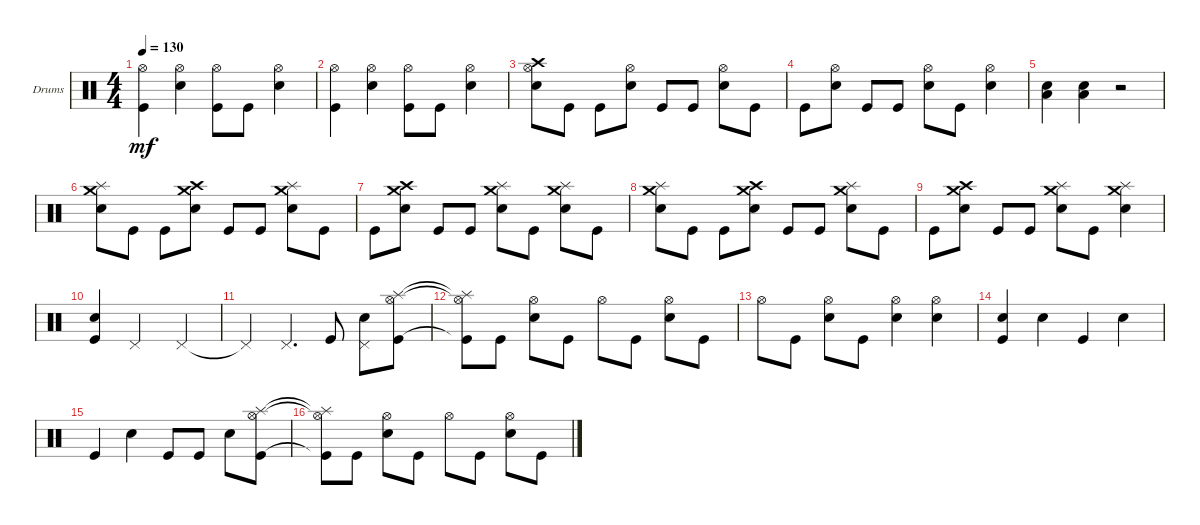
\defaultSystemsLayout 4
\bracketExtendMode groupsimilarinstruments
\firstSystemTrackNameOrientation horizontal
\otherSystemsTrackNameOrientation horizontal
\track ("Drumkit" "Drums") {instrument percussion}
\staff {score}
\articulation defaults
\ts (4 4)
\tempo 130
\clef neutral
\ks c
("Hi-Hat (open)" "Kick (hit)").4{dy mf} ("Snare (hit) 2" "Hi-Hat (open)").4 ("Kick (hit)" "Hi-Hat (open)").8 "Kick (hit)".8 ("Snare (hit) 2" "Hi-Hat (open)").4 |
("Hi-Hat (open)" "Kick (hit)").4 ("Snare (hit) 2" "Hi-Hat (open)").4 ("Kick (hit)" "Hi-Hat (open)").8 "Kick (hit)".8 ("Snare (hit) 2" "Hi-Hat (open)").4 |
("Snare (hit) 2" "Hi-Hat (open)" "Crash high (hit)").8 "Kick (hit)".8 "Kick (hit)".8 ("Snare (hit) 2" "Hi-Hat (open)").8 "Kick (hit)".8 "Kick (hit)".8 ("Snare (hit) 2" "Hi-Hat (open)").8 "Kick (hit)".8 |
"Kick (hit)".8 ("Snare (hit) 2" "Hi-Hat (open)").8 "Kick (hit)".8 "Kick (hit)".8 ("Snare (hit) 2" "Hi-Hat (open)").8 "Kick (hit)".8 ("Snare (hit) 2" "Hi-Hat (open)").4 |
("Snare (hit) 2" "Low Tom (hit)").4 ("Snare (hit) 2" "Low Tom (hit)").4 r.2 |
("Snare (hit) 2" "Splash (hit)" "Crash medium (hit)").8 "Kick (hit)".8 "Kick (hit)".8 ("Snare (hit) 2" "Crash high (hit)" "Crash medium (hit)").8 "Kick (hit)".8 "Kick (hit)".8 ("Snare (hit) 2" "Splash (hit)" "Crash medium (hit)").8 "Kick (hit)".8 |
"Kick (hit)".8 ("Snare (hit) 2" "Crash high (hit)" "Crash medium (hit)").8 "Kick (hit)".8 "Kick (hit)".8 ("Snare (hit) 2" "Splash (hit)" "Crash medium (hit)").8 "Kick (hit)".8 ("Snare (hit) 2" "Splash (hit)" "Crash medium (hit)").8 "Kick (hit)".8 |
("Snare (hit) 2" "Splash (hit)" "Crash medium (hit)").8 "Kick (hit)".8 "Kick (hit)".8 ("Snare (hit) 2" "Crash high (hit)" "Crash medium (hit)").8 "Kick (hit)".8 "Kick (hit)".8 ("Snare (hit) 2" "Splash (hit)" "Crash medium (hit)").8 "Kick (hit)".8 |
"Kick (hit)".8 ("Snare (hit) 2" "Crash high (hit)" "Crash medium (hit)").8 "Kick (hit)".8 "Kick (hit)".8 ("Snare (hit) 2" "Splash (hit)" "Crash medium (hit)").8 "Kick (hit)".8 ("Snare (hit) 2" "Splash (hit)" "Crash medium (hit)").4 |
("Snare (hit) 2" "Kick (hit)").4 "Pedal Hi-Hat (hit)".2 "Pedal Hi-Hat (hit)".4 |
"Pedal Hi-Hat (hit)"{t}.4 "Pedal Hi-Hat (hit)".4{d} "Kick (hit)".8 ("Snare (hit) 2" "Pedal Hi-Hat (hit)").8 ("Kick (hit)" "Splash (hit)" "Hi-Hat (open)").8 |
("Kick (hit)"{t} "Splash (hit)"{t} "Hi-Hat (open)"{t}).8 "Kick (hit)".8 ("Snare (hit) 2" "Hi-Hat (open)").8 "Kick (hit)".8 "Hi-Hat (open)".8 "Kick (hit)".8 ("Snare (hit) 2" "Hi-Hat (open)").8 "Kick (hit)".8 |
"Hi-Hat (open)".8 "Kick (hit)".8 ("Hi-Hat (open)" "Snare (hit) 2").8 "Kick (hit)".8 ("Snare (hit) 2" "Hi-Hat (open)").4 ("Snare (hit) 2" "Hi-Hat (open)").4 |
("Snare (hit) 2" "Kick (hit)").4 "Snare (hit) 2".4 "Kick (hit)".4 "Snare (hit) 2".4 |
"Kick (hit)".4 "Snare (hit) 2".4 "Kick (hit)".8 "Kick (hit)".8 "Snare (hit) 2".8 ("Kick (hit)" "Splash (hit)" "Hi-Hat (open)").8 |
("Kick (hit)"{t} "Splash (hit)"{t} "Hi-Hat (open)"{t}).8 "Kick (hit)".8 ("Snare (hit) 2" "Hi-Hat (open)").8 "Kick (hit)".8 "Hi-Hat (open)".8 "Kick (hit)".8 ("Snare (hit) 2" "Hi-Hat (open)").8 "Kick (hit)".8
